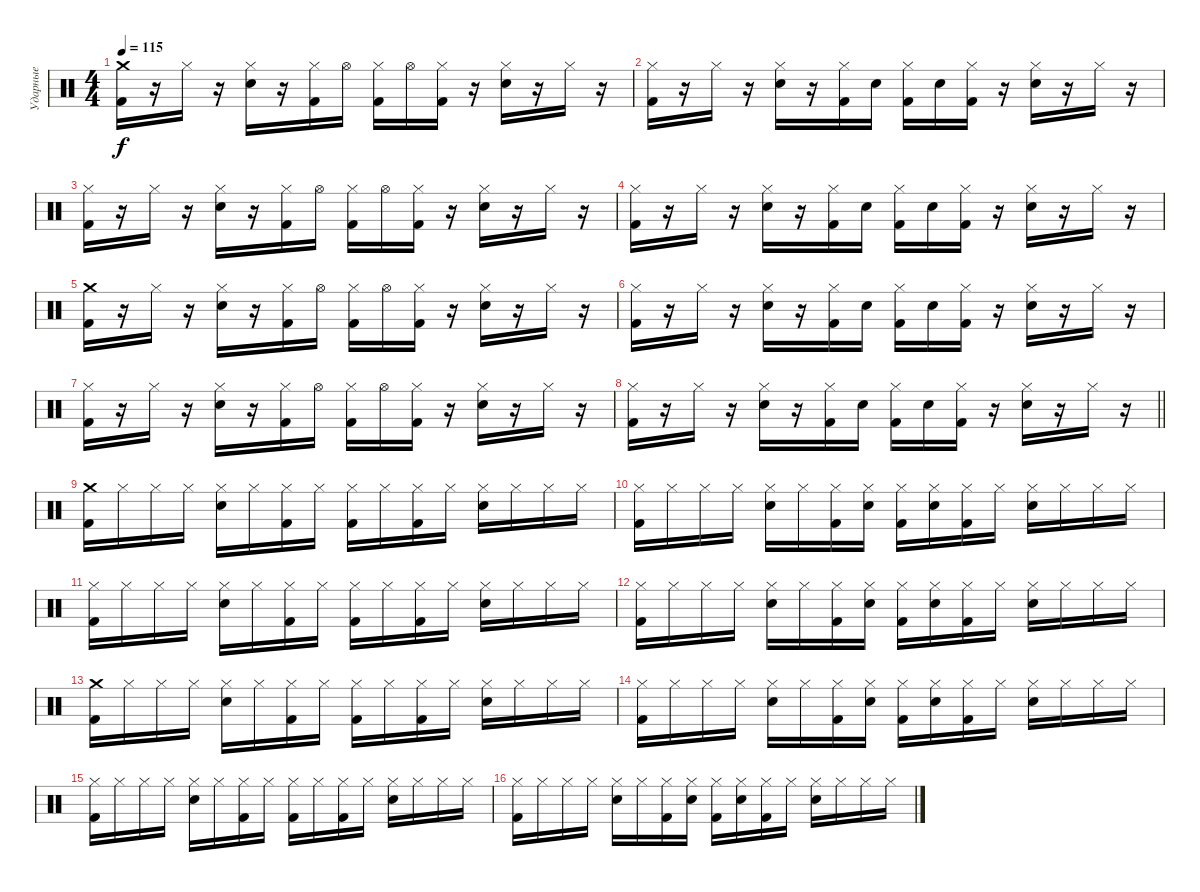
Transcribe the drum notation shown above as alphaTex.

\track ("Ударные" "Ударные") {instrument percussion}
\staff {score}
\articulation defaults
\ts (4 4)
\tempo 115
\clef neutral
\ks c
("Crash medium (hit)" "Kick (hit) 2").16{dy f} r.16 "Hi-Hat (closed)".16 r.16 ("Hi-Hat (closed)" "Snare (hit) 2").16 r.16 ("Hi-Hat (closed)" "Kick (hit) 2").16 "Hi-Hat (open)".16 ("Hi-Hat (closed)" "Kick (hit) 2").16 "Hi-Hat (open)".16 ("Hi-Hat (closed)" "Kick (hit) 2").16 r.16 ("Hi-Hat (closed)" "Snare (hit) 2").16 r.16 "Hi-Hat (closed)".16 r.16 |
("Hi-Hat (closed)" "Kick (hit) 2").16 r.16 "Hi-Hat (closed)".16 r.16 ("Hi-Hat (closed)" "Snare (hit) 2").16 r.16 ("Hi-Hat (closed)" "Kick (hit) 2").16 "Snare (hit) 2".16 ("Hi-Hat (closed)" "Kick (hit) 2").16 "Snare (hit) 2".16 ("Hi-Hat (closed)" "Kick (hit) 2").16 r.16 ("Hi-Hat (closed)" "Snare (hit) 2").16 r.16 "Hi-Hat (closed)".16 r.16 |
("Hi-Hat (closed)" "Kick (hit) 2").16 r.16 "Hi-Hat (closed)".16 r.16 ("Hi-Hat (closed)" "Snare (hit) 2").16 r.16 ("Hi-Hat (closed)" "Kick (hit) 2").16 "Hi-Hat (open)".16 ("Hi-Hat (closed)" "Kick (hit) 2").16 "Hi-Hat (open)".16 ("Hi-Hat (closed)" "Kick (hit) 2").16 r.16 ("Hi-Hat (closed)" "Snare (hit) 2").16 r.16 "Hi-Hat (closed)".16 r.16 |
("Hi-Hat (closed)" "Kick (hit) 2").16 r.16 "Hi-Hat (closed)".16 r.16 ("Hi-Hat (closed)" "Snare (hit) 2").16 r.16 ("Hi-Hat (closed)" "Kick (hit) 2").16 "Snare (hit) 2".16 ("Hi-Hat (closed)" "Kick (hit) 2").16 "Snare (hit) 2".16 ("Hi-Hat (closed)" "Kick (hit) 2").16 r.16 ("Hi-Hat (closed)" "Snare (hit) 2").16 r.16 "Hi-Hat (closed)".16 r.16 |
("Crash medium (hit)" "Kick (hit) 2").16 r.16 "Hi-Hat (closed)".16 r.16 ("Hi-Hat (closed)" "Snare (hit) 2").16 r.16 ("Hi-Hat (closed)" "Kick (hit) 2").16 "Hi-Hat (open)".16 ("Hi-Hat (closed)" "Kick (hit) 2").16 "Hi-Hat (open)".16 ("Hi-Hat (closed)" "Kick (hit) 2").16 r.16 ("Hi-Hat (closed)" "Snare (hit) 2").16 r.16 "Hi-Hat (closed)".16 r.16 |
("Hi-Hat (closed)" "Kick (hit) 2").16 r.16 "Hi-Hat (closed)".16 r.16 ("Hi-Hat (closed)" "Snare (hit) 2").16 r.16 ("Hi-Hat (closed)" "Kick (hit) 2").16 "Snare (hit) 2".16 ("Hi-Hat (closed)" "Kick (hit) 2").16 "Snare (hit) 2".16 ("Hi-Hat (closed)" "Kick (hit) 2").16 r.16 ("Hi-Hat (closed)" "Snare (hit) 2").16 r.16 "Hi-Hat (closed)".16 r.16 |
("Hi-Hat (closed)" "Kick (hit) 2").16 r.16 "Hi-Hat (closed)".16 r.16 ("Hi-Hat (closed)" "Snare (hit) 2").16 r.16 ("Hi-Hat (closed)" "Kick (hit) 2").16 "Hi-Hat (open)".16 ("Hi-Hat (closed)" "Kick (hit) 2").16 "Hi-Hat (open)".16 ("Hi-Hat (closed)" "Kick (hit) 2").16 r.16 ("Hi-Hat (closed)" "Snare (hit) 2").16 r.16 "Hi-Hat (closed)".16 r.16 |
\barLineRight lightlight
("Hi-Hat (closed)" "Kick (hit) 2").16 r.16 "Hi-Hat (closed)".16 r.16 ("Hi-Hat (closed)" "Snare (hit) 2").16 r.16 ("Hi-Hat (closed)" "Kick (hit) 2").16 "Snare (hit) 2".16 ("Hi-Hat (closed)" "Kick (hit) 2").16 "Snare (hit) 2".16 ("Hi-Hat (closed)" "Kick (hit) 2").16 r.16 ("Hi-Hat (closed)" "Snare (hit) 2").16 r.16 "Hi-Hat (closed)".16 r.16 |
\section ("" "")
("Crash medium (hit)" "Kick (hit) 2").16 "Hi-Hat (closed)".16 "Hi-Hat (closed)".16 "Hi-Hat (closed)".16 ("Hi-Hat (closed)" "Snare (hit) 2").16 "Hi-Hat (closed)".16 ("Hi-Hat (closed)" "Kick (hit) 2").16 "Hi-Hat (closed)".16 ("Hi-Hat (closed)" "Kick (hit) 2").16 "Hi-Hat (closed)".16 ("Hi-Hat (closed)" "Kick (hit) 2").16 "Hi-Hat (closed)".16 ("Hi-Hat (closed)" "Snare (hit) 2").16 "Hi-Hat (closed)".16 "Hi-Hat (closed)".16 "Hi-Hat (closed)".16 |
("Hi-Hat (closed)" "Kick (hit) 2").16 "Hi-Hat (closed)".16 "Hi-Hat (closed)".16 "Hi-Hat (closed)".16 ("Hi-Hat (closed)" "Snare (hit) 2").16 "Hi-Hat (closed)".16 ("Hi-Hat (closed)" "Kick (hit) 2").16 ("Hi-Hat (closed)" "Snare (hit) 2").16 ("Hi-Hat (closed)" "Kick (hit) 2").16 ("Hi-Hat (closed)" "Snare (hit) 2").16 ("Hi-Hat (closed)" "Kick (hit) 2").16 "Hi-Hat (closed)".16 ("Hi-Hat (closed)" "Snare (hit) 2").16 "Hi-Hat (closed)".16 "Hi-Hat (closed)".16 "Hi-Hat (closed)".16 |
("Hi-Hat (closed)" "Kick (hit) 2").16 "Hi-Hat (closed)".16 "Hi-Hat (closed)".16 "Hi-Hat (closed)".16 ("Hi-Hat (closed)" "Snare (hit) 2").16 "Hi-Hat (closed)".16 ("Hi-Hat (closed)" "Kick (hit) 2").16 "Hi-Hat (closed)".16 ("Hi-Hat (closed)" "Kick (hit) 2").16 "Hi-Hat (closed)".16 ("Hi-Hat (closed)" "Kick (hit) 2").16 "Hi-Hat (closed)".16 ("Hi-Hat (closed)" "Snare (hit) 2").16 "Hi-Hat (closed)".16 "Hi-Hat (closed)".16 "Hi-Hat (closed)".16 |
("Hi-Hat (closed)" "Kick (hit) 2").16 "Hi-Hat (closed)".16 "Hi-Hat (closed)".16 "Hi-Hat (closed)".16 ("Hi-Hat (closed)" "Snare (hit) 2").16 "Hi-Hat (closed)".16 ("Hi-Hat (closed)" "Kick (hit) 2").16 ("Hi-Hat (closed)" "Snare (hit) 2").16 ("Hi-Hat (closed)" "Kick (hit) 2").16 ("Hi-Hat (closed)" "Snare (hit) 2").16 ("Hi-Hat (closed)" "Kick (hit) 2").16 "Hi-Hat (closed)".16 ("Hi-Hat (closed)" "Snare (hit) 2").16 "Hi-Hat (closed)".16 "Hi-Hat (closed)".16 "Hi-Hat (closed)".16 |
("Crash medium (hit)" "Kick (hit) 2").16 "Hi-Hat (closed)".16 "Hi-Hat (closed)".16 "Hi-Hat (closed)".16 ("Hi-Hat (closed)" "Snare (hit) 2").16 "Hi-Hat (closed)".16 ("Hi-Hat (closed)" "Kick (hit) 2").16 "Hi-Hat (closed)".16 ("Hi-Hat (closed)" "Kick (hit) 2").16 "Hi-Hat (closed)".16 ("Hi-Hat (closed)" "Kick (hit) 2").16 "Hi-Hat (closed)".16 ("Hi-Hat (closed)" "Snare (hit) 2").16 "Hi-Hat (closed)".16 "Hi-Hat (closed)".16 "Hi-Hat (closed)".16 |
("Hi-Hat (closed)" "Kick (hit) 2").16 "Hi-Hat (closed)".16 "Hi-Hat (closed)".16 "Hi-Hat (closed)".16 ("Hi-Hat (closed)" "Snare (hit) 2").16 "Hi-Hat (closed)".16 ("Hi-Hat (closed)" "Kick (hit) 2").16 ("Hi-Hat (closed)" "Snare (hit) 2").16 ("Hi-Hat (closed)" "Kick (hit) 2").16 ("Hi-Hat (closed)" "Snare (hit) 2").16 ("Hi-Hat (closed)" "Kick (hit) 2").16 "Hi-Hat (closed)".16 ("Hi-Hat (closed)" "Snare (hit) 2").16 "Hi-Hat (closed)".16 "Hi-Hat (closed)".16 "Hi-Hat (closed)".16 |
("Hi-Hat (closed)" "Kick (hit) 2").16 "Hi-Hat (closed)".16 "Hi-Hat (closed)".16 "Hi-Hat (closed)".16 ("Hi-Hat (closed)" "Snare (hit) 2").16 "Hi-Hat (closed)".16 ("Hi-Hat (closed)" "Kick (hit) 2").16 "Hi-Hat (closed)".16 ("Hi-Hat (closed)" "Kick (hit) 2").16 "Hi-Hat (closed)".16 ("Hi-Hat (closed)" "Kick (hit) 2").16 "Hi-Hat (closed)".16 ("Hi-Hat (closed)" "Snare (hit) 2").16 "Hi-Hat (closed)".16 "Hi-Hat (closed)".16 "Hi-Hat (closed)".16 |
("Hi-Hat (closed)" "Kick (hit) 2").16 "Hi-Hat (closed)".16 "Hi-Hat (closed)".16 "Hi-Hat (closed)".16 ("Hi-Hat (closed)" "Snare (hit) 2").16 "Hi-Hat (closed)".16 ("Hi-Hat (closed)" "Kick (hit) 2").16 ("Hi-Hat (closed)" "Snare (hit) 2").16 ("Hi-Hat (closed)" "Kick (hit) 2").16 ("Hi-Hat (closed)" "Snare (hit) 2").16 ("Hi-Hat (closed)" "Kick (hit) 2").16 "Hi-Hat (closed)".16 ("Hi-Hat (closed)" "Snare (hit) 2").16 "Hi-Hat (closed)".16 "Hi-Hat (closed)".16 "Hi-Hat (closed)".16
